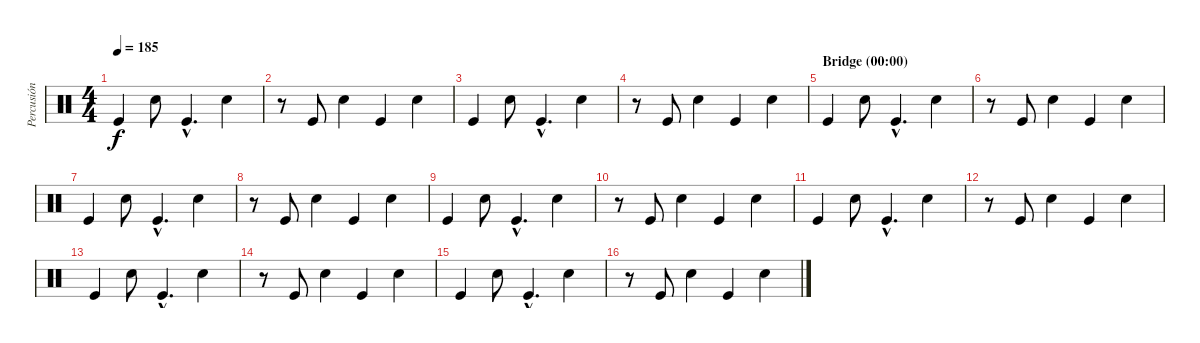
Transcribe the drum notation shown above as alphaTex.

\track ("Percusión" "Percusión") {instrument percussion}
\staff {score}
\articulation defaults
\ts (4 4)
\tempo 185
\clef neutral
\ks c "Kick (hit)".4{dy f} "Electric Snare (hit)".8 "Kick (hit)"{hac}.4{d} "Electric Snare (hit)".4
|
r.8 "Kick (hit)".8 "Electric Snare (hit)".4 "Kick (hit)".4 "Electric Snare (hit)".4 |
"Kick (hit)".4 "Electric Snare (hit)".8 "Kick (hit)"{hac}.4{d} "Electric Snare (hit)".4 |
r.8 "Kick (hit)".8 "Electric Snare (hit)".4 "Kick (hit)".4 "Electric Snare (hit)".4 |
\section ("" "Bridge (00:00)")
"Kick (hit)".4 "Electric Snare (hit)".8 "Kick (hit)"{hac}.4{d} "Electric Snare (hit)".4 |
r.8 "Kick (hit)".8 "Electric Snare (hit)".4 "Kick (hit)".4 "Electric Snare (hit)".4 |
"Kick (hit)".4 "Electric Snare (hit)".8 "Kick (hit)"{hac}.4{d} "Electric Snare (hit)".4 |
r.8 "Kick (hit)".8 "Electric Snare (hit)".4 "Kick (hit)".4 "Electric Snare (hit)".4 |
"Kick (hit)".4 "Electric Snare (hit)".8 "Kick (hit)"{hac}.4{d} "Electric Snare (hit)".4 |
r.8 "Kick (hit)".8 "Electric Snare (hit)".4 "Kick (hit)".4 "Electric Snare (hit)".4 |
"Kick (hit)".4 "Electric Snare (hit)".8 "Kick (hit)"{hac}.4{d} "Electric Snare (hit)".4 |
r.8 "Kick (hit)".8 "Electric Snare (hit)".4 "Kick (hit)".4 "Electric Snare (hit)".4 |
"Kick (hit)".4 "Electric Snare (hit)".8 "Kick (hit)"{hac}.4{d} "Electric Snare (hit)".4 |
r.8 "Kick (hit)".8 "Electric Snare (hit)".4 "Kick (hit)".4 "Electric Snare (hit)".4 |
"Kick (hit)".4 "Electric Snare (hit)".8 "Kick (hit)"{hac}.4{d} "Electric Snare (hit)".4 |
r.8 "Kick (hit)".8 "Electric Snare (hit)".4 "Kick (hit)".4 "Electric Snare (hit)".4
